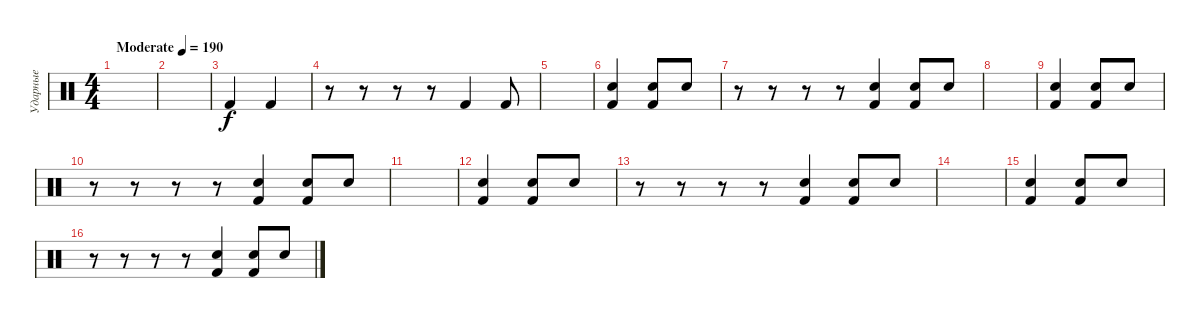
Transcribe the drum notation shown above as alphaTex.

\track ("Ударные" "Ударные") {instrument percussion}
\staff {score}
\articulation defaults
\ts (4 4)
\tempo (190 "Moderate")
\clef neutral
\ks c
|
|
"Kick (hit) 2".4 "Kick (hit) 2".4 |
r.8 r.8 r.8 r.8 "Kick (hit) 2".4 "Kick (hit) 2".8 |
|
("Kick (hit) 2" "Electric Snare (hit)").4 ("Kick (hit) 2" "Electric Snare (hit)").8 "Electric Snare (hit)".8 |
r.8 r.8 r.8 r.8 ("Electric Snare (hit)" "Kick (hit) 2").4 ("Electric Snare (hit)" "Kick (hit) 2").8 "Electric Snare (hit)".8 |
|
("Electric Snare (hit)" "Kick (hit) 2").4 ("Electric Snare (hit)" "Kick (hit) 2").8 "Electric Snare (hit)".8 |
r.8 r.8 r.8 r.8 ("Kick (hit) 2" "Electric Snare (hit)").4 ("Kick (hit) 2" "Electric Snare (hit)").8 "Electric Snare (hit)".8 |
|
("Kick (hit) 2" "Electric Snare (hit)").4 ("Kick (hit) 2" "Electric Snare (hit)").8 "Electric Snare (hit)".8 |
r.8 r.8 r.8 r.8 ("Electric Snare (hit)" "Kick (hit) 2").4 ("Electric Snare (hit)" "Kick (hit) 2").8 "Electric Snare (hit)".8 |
|
("Electric Snare (hit)" "Kick (hit) 2").4 ("Electric Snare (hit)" "Kick (hit) 2").8 "Electric Snare (hit)".8 |
r.8 r.8 r.8 r.8 ("Kick (hit) 2" "Electric Snare (hit)").4 ("Kick (hit) 2" "Electric Snare (hit)").8 "Electric Snare (hit)".8
